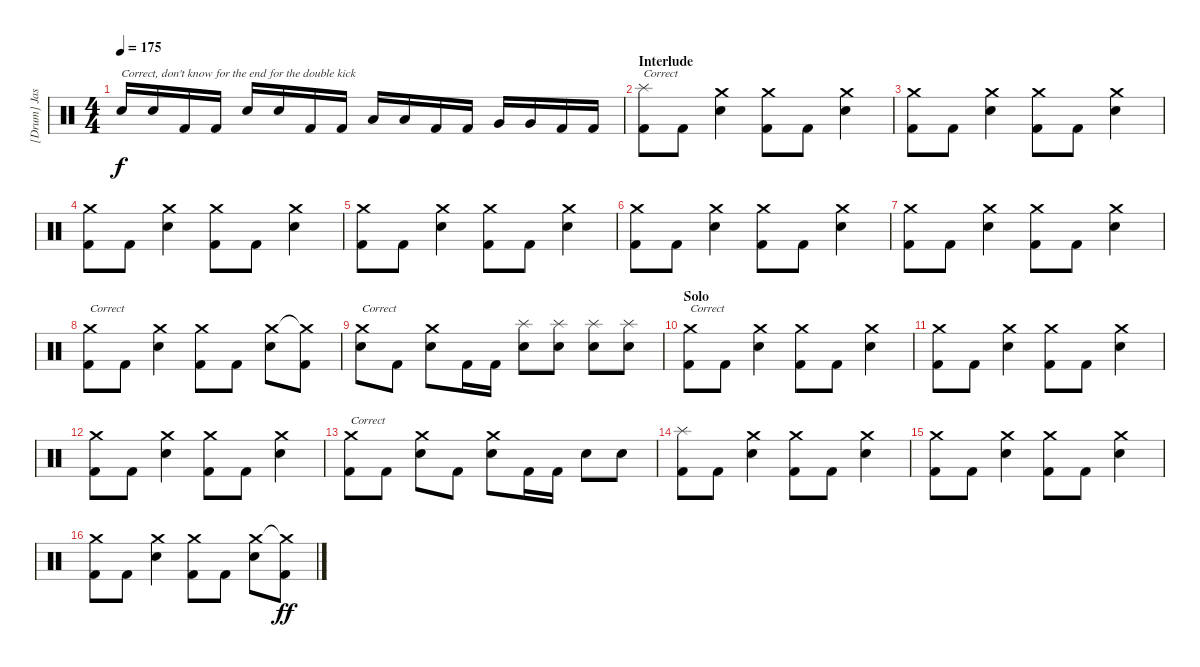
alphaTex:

\track ("[Drum] Jason \"Shakes\" West" "[Drum] Jas") {instrument percussion}
\staff {score}
\articulation defaults
\ts (4 4)
\tempo 175
\clef neutral
\ks c "Electric Snare (hit)".16{txt "Correct, don't know for the end for the double kick" dy f} "Electric Snare (hit)".16 "Kick (hit) 2".16 "Kick (hit) 2".16 "Electric Snare (hit)".16 "Electric Snare (hit)".16 "Kick (hit) 2".16 "Kick (hit) 2".16 "Low Tom (hit)".16 "Low Tom (hit)".16 "Kick (hit) 2".16 "Kick (hit) 2".16 "Very Low Tom (hit)".16 "Very Low Tom (hit)".16 "Kick (hit) 2".16 "Kick (hit) 2".16
|
\section ("" "Interlude")
("Splash (hit)" "Kick (hit) 2").8{txt "Correct"} "Kick (hit) 2".8 ("Crash medium (hit)" "Electric Snare (hit)").4 ("Crash medium (hit)" "Kick (hit) 2").8 "Kick (hit) 2".8 ("Crash medium (hit)" "Electric Snare (hit)").4 |
("Crash medium (hit)" "Kick (hit) 2").8 "Kick (hit) 2".8 ("Crash medium (hit)" "Electric Snare (hit)").4 ("Crash medium (hit)" "Kick (hit) 2").8 "Kick (hit) 2".8 ("Crash medium (hit)" "Electric Snare (hit)").4 |
("Crash medium (hit)" "Kick (hit) 2").8 "Kick (hit) 2".8 ("Crash medium (hit)" "Electric Snare (hit)").4 ("Crash medium (hit)" "Kick (hit) 2").8 "Kick (hit) 2".8 ("Crash medium (hit)" "Electric Snare (hit)").4 |
("Crash medium (hit)" "Kick (hit) 2").8 "Kick (hit) 2".8 ("Crash medium (hit)" "Electric Snare (hit)").4 ("Crash medium (hit)" "Kick (hit) 2").8 "Kick (hit) 2".8 ("Crash medium (hit)" "Electric Snare (hit)").4 |
("Crash medium (hit)" "Kick (hit) 2").8 "Kick (hit) 2".8 ("Crash medium (hit)" "Electric Snare (hit)").4 ("Crash medium (hit)" "Kick (hit) 2").8 "Kick (hit) 2".8 ("Crash medium (hit)" "Electric Snare (hit)").4 |
("Crash medium (hit)" "Kick (hit) 2").8 "Kick (hit) 2".8 ("Crash medium (hit)" "Electric Snare (hit)").4 ("Crash medium (hit)" "Kick (hit) 2").8 "Kick (hit) 2".8 ("Crash medium (hit)" "Electric Snare (hit)").4 |
("Crash medium (hit)" "Kick (hit) 2").8{txt "Correct"} "Kick (hit) 2".8 ("Crash medium (hit)" "Electric Snare (hit)").4 ("Crash medium (hit)" "Kick (hit) 2").8 "Kick (hit) 2".8 ("Crash medium (hit)" "Electric Snare (hit)").8 ("Crash medium (hit)"{t} "Kick (hit) 2").8 |
("Electric Snare (hit)" "Crash medium (hit)").8{txt "Correct"} "Kick (hit) 2".8 ("Electric Snare (hit)" "Crash medium (hit)").8 "Kick (hit) 2".16 "Kick (hit) 2".16 ("Electric Snare (hit)" "Splash (hit)").8 ("Electric Snare (hit)" "Splash (hit)").8 ("Electric Snare (hit)" "Splash (hit)").8 ("Electric Snare (hit)" "Splash (hit)").8 |
\section ("" "Solo")
("Crash medium (hit)" "Kick (hit) 2").8{txt "Correct"} "Kick (hit) 2".8 ("Crash medium (hit)" "Electric Snare (hit)").4 ("Crash medium (hit)" "Kick (hit) 2").8 "Kick (hit) 2".8 ("Crash medium (hit)" "Electric Snare (hit)").4 |
("Crash medium (hit)" "Kick (hit) 2").8 "Kick (hit) 2".8 ("Crash medium (hit)" "Electric Snare (hit)").4 ("Crash medium (hit)" "Kick (hit) 2").8 "Kick (hit) 2".8 ("Crash medium (hit)" "Electric Snare (hit)").4 |
("Crash medium (hit)" "Kick (hit) 2").8 "Kick (hit) 2".8 ("Crash medium (hit)" "Electric Snare (hit)").4 ("Crash medium (hit)" "Kick (hit) 2").8 "Kick (hit) 2".8 ("Crash medium (hit)" "Electric Snare (hit)").4 |
("Crash medium (hit)" "Kick (hit) 2").8{txt "Correct"} "Kick (hit) 2".8 ("Crash medium (hit)" "Electric Snare (hit)").8 "Kick (hit) 2".8 ("Crash medium (hit)" "Electric Snare (hit)").8 "Kick (hit) 2".16 "Kick (hit) 2".16 "Electric Snare (hit)".8 "Electric Snare (hit)".8 |
("Splash (hit)" "Kick (hit) 2").8 "Kick (hit) 2".8 ("Crash medium (hit)" "Electric Snare (hit)").4 ("Crash medium (hit)" "Kick (hit) 2").8 "Kick (hit) 2".8 ("Crash medium (hit)" "Electric Snare (hit)").4 |
("Crash medium (hit)" "Kick (hit) 2").8 "Kick (hit) 2".8 ("Crash medium (hit)" "Electric Snare (hit)").4 ("Crash medium (hit)" "Kick (hit) 2").8 "Kick (hit) 2".8 ("Crash medium (hit)" "Electric Snare (hit)").4 |
("Crash medium (hit)" "Kick (hit) 2").8 "Kick (hit) 2".8 ("Crash medium (hit)" "Electric Snare (hit)").4 ("Crash medium (hit)" "Kick (hit) 2").8 "Kick (hit) 2".8 ("Crash medium (hit)" "Electric Snare (hit)").8 ("Crash medium (hit)"{t} "Kick (hit) 2").8{dy ff}
